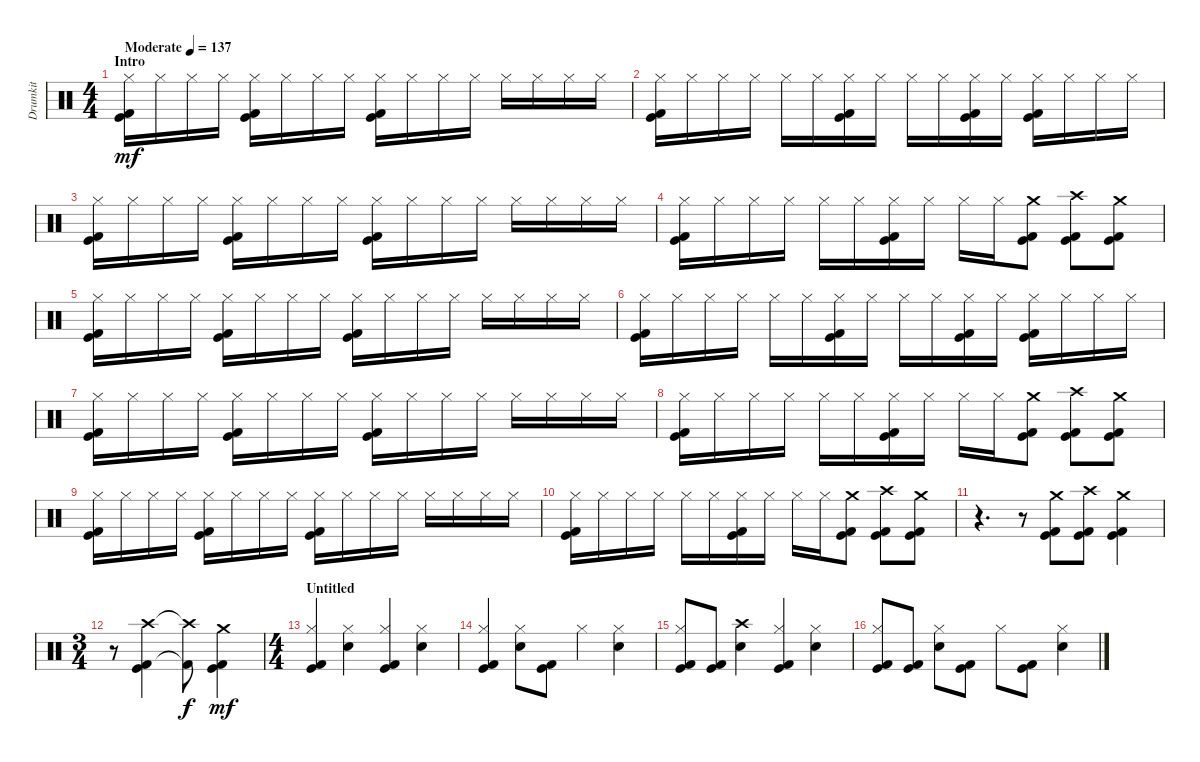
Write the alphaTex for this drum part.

\track ("Drumkit" "Drumkit") {instrument percussion}
\staff {score}
\articulation defaults
\ts (4 4)
\section ("" "Intro")
\tempo (137 "Moderate")
\clef neutral
\ks c
("Kick (hit) 2" "Hi-Hat (closed)" "Kick (hit)").16{dy mf} "Hi-Hat (closed)".16 "Hi-Hat (closed)".16 "Hi-Hat (closed)".16 ("Kick (hit) 2" "Hi-Hat (closed)" "Kick (hit)").16 "Hi-Hat (closed)".16 "Hi-Hat (closed)".16 "Hi-Hat (closed)".16 ("Kick (hit) 2" "Hi-Hat (closed)" "Kick (hit)").16 "Hi-Hat (closed)".16 "Hi-Hat (closed)".16 "Hi-Hat (closed)".16 "Hi-Hat (closed)".16 "Hi-Hat (closed)".16 "Hi-Hat (closed)".16 "Hi-Hat (closed)".16 |
("Kick (hit) 2" "Hi-Hat (closed)" "Kick (hit)").16 "Hi-Hat (closed)".16 "Hi-Hat (closed)".16 "Hi-Hat (closed)".16 "Hi-Hat (closed)".16 "Hi-Hat (closed)".16 ("Kick (hit) 2" "Hi-Hat (closed)" "Kick (hit)").16 "Hi-Hat (closed)".16 "Hi-Hat (closed)".16 "Hi-Hat (closed)".16 ("Kick (hit) 2" "Hi-Hat (closed)" "Kick (hit)").16 "Hi-Hat (closed)".16 ("Kick (hit) 2" "Hi-Hat (closed)" "Kick (hit)").16 "Hi-Hat (closed)".16 "Hi-Hat (closed)".16 "Hi-Hat (closed)".16 |
("Kick (hit) 2" "Hi-Hat (closed)" "Kick (hit)").16 "Hi-Hat (closed)".16 "Hi-Hat (closed)".16 "Hi-Hat (closed)".16 ("Kick (hit) 2" "Hi-Hat (closed)" "Kick (hit)").16 "Hi-Hat (closed)".16 "Hi-Hat (closed)".16 "Hi-Hat (closed)".16 ("Kick (hit) 2" "Hi-Hat (closed)" "Kick (hit)").16 "Hi-Hat (closed)".16 "Hi-Hat (closed)".16 "Hi-Hat (closed)".16 "Hi-Hat (closed)".16 "Hi-Hat (closed)".16 "Hi-Hat (closed)".16 "Hi-Hat (closed)".16 |
("Kick (hit) 2" "Hi-Hat (closed)" "Kick (hit)").16 "Hi-Hat (closed)".16 "Hi-Hat (closed)".16 "Hi-Hat (closed)".16 "Hi-Hat (closed)".16 "Hi-Hat (closed)".16 ("Kick (hit) 2" "Hi-Hat (closed)" "Kick (hit)").16 "Hi-Hat (closed)".16 "Hi-Hat (closed)".16 "Hi-Hat (closed)".16 ("Crash medium (hit)" "Kick (hit) 2" "Kick (hit)").8 ("Crash high (hit)" "Kick (hit) 2" "Kick (hit)").8 ("Crash medium (hit)" "Kick (hit) 2" "Kick (hit)").8 |
("Kick (hit) 2" "Hi-Hat (closed)" "Kick (hit)").16 "Hi-Hat (closed)".16 "Hi-Hat (closed)".16 "Hi-Hat (closed)".16 ("Kick (hit) 2" "Hi-Hat (closed)" "Kick (hit)").16 "Hi-Hat (closed)".16 "Hi-Hat (closed)".16 "Hi-Hat (closed)".16 ("Kick (hit) 2" "Hi-Hat (closed)" "Kick (hit)").16 "Hi-Hat (closed)".16 "Hi-Hat (closed)".16 "Hi-Hat (closed)".16 "Hi-Hat (closed)".16 "Hi-Hat (closed)".16 "Hi-Hat (closed)".16 "Hi-Hat (closed)".16 |
("Kick (hit) 2" "Hi-Hat (closed)" "Kick (hit)").16 "Hi-Hat (closed)".16 "Hi-Hat (closed)".16 "Hi-Hat (closed)".16 "Hi-Hat (closed)".16 "Hi-Hat (closed)".16 ("Kick (hit) 2" "Hi-Hat (closed)" "Kick (hit)").16 "Hi-Hat (closed)".16 "Hi-Hat (closed)".16 "Hi-Hat (closed)".16 ("Kick (hit) 2" "Hi-Hat (closed)" "Kick (hit)").16 "Hi-Hat (closed)".16 ("Kick (hit) 2" "Hi-Hat (closed)" "Kick (hit)").16 "Hi-Hat (closed)".16 "Hi-Hat (closed)".16 "Hi-Hat (closed)".16 |
("Kick (hit) 2" "Hi-Hat (closed)" "Kick (hit)").16 "Hi-Hat (closed)".16 "Hi-Hat (closed)".16 "Hi-Hat (closed)".16 ("Kick (hit) 2" "Hi-Hat (closed)" "Kick (hit)").16 "Hi-Hat (closed)".16 "Hi-Hat (closed)".16 "Hi-Hat (closed)".16 ("Kick (hit) 2" "Hi-Hat (closed)" "Kick (hit)").16 "Hi-Hat (closed)".16 "Hi-Hat (closed)".16 "Hi-Hat (closed)".16 "Hi-Hat (closed)".16 "Hi-Hat (closed)".16 "Hi-Hat (closed)".16 "Hi-Hat (closed)".16 |
("Kick (hit) 2" "Hi-Hat (closed)" "Kick (hit)").16 "Hi-Hat (closed)".16 "Hi-Hat (closed)".16 "Hi-Hat (closed)".16 "Hi-Hat (closed)".16 "Hi-Hat (closed)".16 ("Kick (hit) 2" "Hi-Hat (closed)" "Kick (hit)").16 "Hi-Hat (closed)".16 "Hi-Hat (closed)".16 "Hi-Hat (closed)".16 ("Crash medium (hit)" "Kick (hit) 2" "Kick (hit)").8 ("Crash high (hit)" "Kick (hit) 2" "Kick (hit)").8 ("Crash medium (hit)" "Kick (hit) 2" "Kick (hit)").8 |
("Kick (hit) 2" "Hi-Hat (closed)" "Kick (hit)").16 "Hi-Hat (closed)".16 "Hi-Hat (closed)".16 "Hi-Hat (closed)".16 ("Kick (hit) 2" "Hi-Hat (closed)" "Kick (hit)").16 "Hi-Hat (closed)".16 "Hi-Hat (closed)".16 "Hi-Hat (closed)".16 ("Kick (hit) 2" "Hi-Hat (closed)" "Kick (hit)").16 "Hi-Hat (closed)".16 "Hi-Hat (closed)".16 "Hi-Hat (closed)".16 "Hi-Hat (closed)".16 "Hi-Hat (closed)".16 "Hi-Hat (closed)".16 "Hi-Hat (closed)".16 |
("Kick (hit) 2" "Hi-Hat (closed)" "Kick (hit)").16 "Hi-Hat (closed)".16 "Hi-Hat (closed)".16 "Hi-Hat (closed)".16 "Hi-Hat (closed)".16 "Hi-Hat (closed)".16 ("Kick (hit) 2" "Hi-Hat (closed)" "Kick (hit)").16 "Hi-Hat (closed)".16 "Hi-Hat (closed)".16 "Hi-Hat (closed)".16 ("Crash medium (hit)" "Kick (hit) 2" "Kick (hit)").8 ("Crash high (hit)" "Kick (hit) 2" "Kick (hit)").8 ("Crash medium (hit)" "Kick (hit) 2" "Kick (hit)").8 |
r.4{d} r.8 ("Crash medium (hit)" "Kick (hit) 2" "Kick (hit)").8 ("Crash high (hit)" "Kick (hit) 2" "Kick (hit)").8 ("Crash medium (hit)" "Kick (hit) 2" "Kick (hit)").4 |
\ts (3 4)
r.8 ("Crash high (hit)" "Kick (hit) 2" "Kick (hit)").4 ("Crash high (hit)"{t} "Kick (hit) 2"{t}).8{dy f} ("Kick (hit) 2" "Crash medium (hit)" "Kick (hit)").4{dy mf} |
\ts (4 4)
\section ("" "Untitled")
("Kick (hit) 2" "Hi-Hat (closed)" "Kick (hit)").4 ("Hi-Hat (closed)" "Snare (hit) 2").4 ("Kick (hit) 2" "Hi-Hat (closed)" "Kick (hit)").4 ("Hi-Hat (closed)" "Snare (hit) 2").4 |
("Kick (hit) 2" "Hi-Hat (closed)" "Kick (hit)").4 ("Hi-Hat (closed)" "Snare (hit) 2").8 ("Kick (hit) 2" "Kick (hit)").8 "Hi-Hat (closed)".4 ("Hi-Hat (closed)" "Snare (hit) 2").4 |
("Kick (hit) 2" "Hi-Hat (closed)" "Kick (hit)").8 ("Kick (hit) 2" "Kick (hit)").8 ("Crash high (hit)" "Snare (hit) 2").4 ("Kick (hit) 2" "Hi-Hat (closed)" "Kick (hit)").4 ("Hi-Hat (closed)" "Snare (hit) 2").4 |
("Kick (hit) 2" "Hi-Hat (closed)" "Kick (hit)").8 ("Kick (hit) 2" "Kick (hit)").8 ("Hi-Hat (closed)" "Snare (hit) 2").8 ("Kick (hit) 2" "Kick (hit)").8 "Hi-Hat (closed)".8 ("Kick (hit) 2" "Kick (hit)").8 ("Hi-Hat (closed)" "Snare (hit) 2").4
